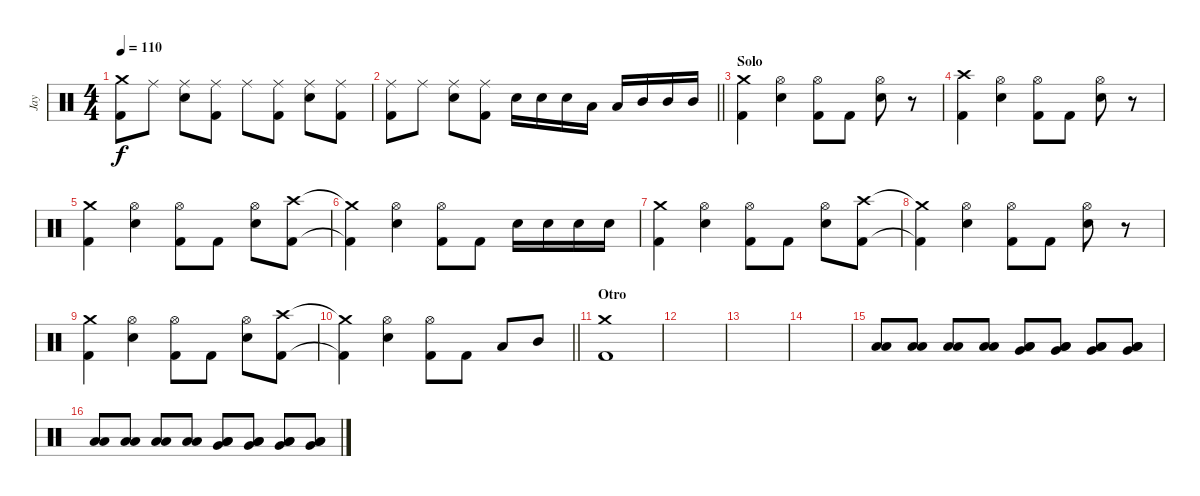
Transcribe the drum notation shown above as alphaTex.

\track ("Jay" "Jay") {instrument percussion}
\staff {score}
\articulation defaults
\ts (4 4)
\tempo 110
\clef neutral
\ks c
("Crash medium (hit)" "Kick (hit) 2").8{dy f} "Ride (middle)".8 ("Ride (middle)" "Electric Snare (hit)").8 ("Ride (middle)" "Kick (hit) 2").8 "Ride (middle)".8 ("Ride (middle)" "Kick (hit) 2").8 ("Ride (middle)" "Electric Snare (hit)").8 ("Ride (middle)" "Kick (hit) 2").8 |
\barLineRight lightlight
("Ride (middle)" "Kick (hit) 2").8 "Ride (middle)".8 ("Ride (middle)" "Electric Snare (hit)").8 ("Ride (middle)" "Kick (hit) 2").8 "Electric Snare (hit)".16 "Electric Snare (hit)".16 "Electric Snare (hit)".16 "Low Tom (hit)".16 "Low Tom (hit)".16 "Mid Tom (hit)".16 "Mid Tom (hit)".16 "Mid Tom (hit)".16 |
\section ("" "Solo")
("Crash medium (hit)" "Kick (hit) 2").4 ("Hi-Hat (open)" "Electric Snare (hit)").4 ("Hi-Hat (open)" "Kick (hit) 2").8 "Kick (hit) 2".8 ("Hi-Hat (open)" "Electric Snare (hit)").8 r.8 |
("Crash high (hit)" "Kick (hit) 2").4 ("Hi-Hat (open)" "Electric Snare (hit)").4 ("Hi-Hat (open)" "Kick (hit) 2").8 "Kick (hit) 2".8 ("Hi-Hat (open)" "Electric Snare (hit)").8 r.8 |
("Crash medium (hit)" "Kick (hit) 2").4 ("Hi-Hat (open)" "Electric Snare (hit)").4 ("Hi-Hat (open)" "Kick (hit) 2").8 "Kick (hit) 2".8 ("Hi-Hat (open)" "Electric Snare (hit)").8 ("Crash high (hit)" "Kick (hit) 2").8 |
("Crash medium (hit)"{t} "Kick (hit) 2"{t}).4 ("Hi-Hat (open)" "Electric Snare (hit)").4 ("Hi-Hat (open)" "Kick (hit) 2").8 "Kick (hit) 2".8 "Electric Snare (hit)".16 "Electric Snare (hit)".16 "Electric Snare (hit)".16 "Electric Snare (hit)".16 |
("Crash medium (hit)" "Kick (hit) 2").4 ("Hi-Hat (open)" "Electric Snare (hit)").4 ("Hi-Hat (open)" "Kick (hit) 2").8 "Kick (hit) 2".8 ("Hi-Hat (open)" "Electric Snare (hit)").8 ("Crash high (hit)" "Kick (hit) 2").8 |
("Crash medium (hit)"{t} "Kick (hit) 2"{t}).4 ("Hi-Hat (open)" "Electric Snare (hit)").4 ("Hi-Hat (open)" "Kick (hit) 2").8 "Kick (hit) 2".8 ("Hi-Hat (open)" "Electric Snare (hit)").8 r.8 |
("Crash medium (hit)" "Kick (hit) 2").4 ("Hi-Hat (open)" "Electric Snare (hit)").4 ("Hi-Hat (open)" "Kick (hit) 2").8 "Kick (hit) 2".8 ("Hi-Hat (open)" "Electric Snare (hit)").8 ("Crash high (hit)" "Kick (hit) 2").8 |
\barLineRight lightlight
("Crash medium (hit)"{t} "Kick (hit) 2"{t}).4 ("Hi-Hat (open)" "Electric Snare (hit)").4 ("Hi-Hat (open)" "Kick (hit) 2").8 "Kick (hit) 2".8 "Low Tom (hit)".8 "Mid Tom (hit)".8 |
\section ("" "Otro")
("Crash medium (hit)" "Kick (hit) 2").1 |
|
|
|
("Low Tom (hit)" "Low Tom (hit)").8 ("Low Tom (hit)" "Low Tom (hit)").8 ("Low Tom (hit)" "Low Tom (hit)").8 ("Low Tom (hit)" "Low Tom (hit)").8 ("Low Tom (hit)" "Low Tom (hit)" "Very Low Tom (hit)").8 ("Low Tom (hit)" "Low Tom (hit)" "Very Low Tom (hit)").8 ("Low Tom (hit)" "Low Tom (hit)" "Very Low Tom (hit)").8 ("Low Tom (hit)" "Low Tom (hit)" "Very Low Tom (hit)").8 |
("Low Tom (hit)" "Low Tom (hit)").8 ("Low Tom (hit)" "Low Tom (hit)").8 ("Low Tom (hit)" "Low Tom (hit)").8 ("Low Tom (hit)" "Low Tom (hit)").8 ("Low Tom (hit)" "Low Tom (hit)" "Very Low Tom (hit)").8 ("Low Tom (hit)" "Low Tom (hit)" "Very Low Tom (hit)").8 ("Low Tom (hit)" "Low Tom (hit)" "Very Low Tom (hit)").8 ("Low Tom (hit)" "Low Tom (hit)" "Very Low Tom (hit)").8
